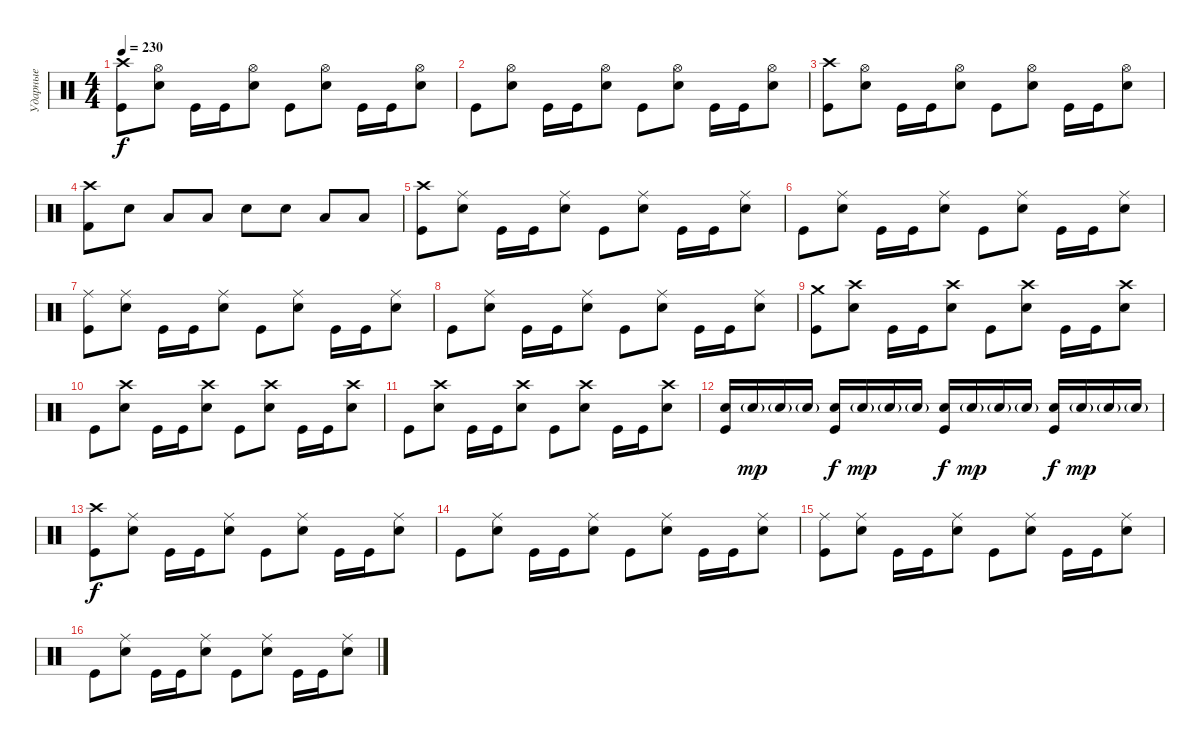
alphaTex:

\track ("Ударные" "Ударные") {instrument percussion}
\staff {score}
\articulation defaults
\ts (4 4)
\tempo 230
\clef neutral
\ks c
("Crash high (hit)" "Kick (hit)").8{dy f} ("Hi-Hat (open)" "Electric Snare (hit)").8 "Kick (hit)".16 "Kick (hit)".16 ("Hi-Hat (open)" "Electric Snare (hit)").8 "Kick (hit)".8 ("Hi-Hat (open)" "Electric Snare (hit)").8 "Kick (hit)".16 "Kick (hit)".16 ("Hi-Hat (open)" "Electric Snare (hit)").8 |
"Kick (hit)".8 ("Hi-Hat (open)" "Electric Snare (hit)").8 "Kick (hit)".16 "Kick (hit)".16 ("Hi-Hat (open)" "Electric Snare (hit)").8 "Kick (hit)".8 ("Hi-Hat (open)" "Electric Snare (hit)").8 "Kick (hit)".16 "Kick (hit)".16 ("Hi-Hat (open)" "Electric Snare (hit)").8 |
("Crash high (hit)" "Kick (hit)").8 ("Hi-Hat (open)" "Electric Snare (hit)").8 "Kick (hit)".16 "Kick (hit)".16 ("Hi-Hat (open)" "Electric Snare (hit)").8 "Kick (hit)".8 ("Hi-Hat (open)" "Electric Snare (hit)").8 "Kick (hit)".16 "Kick (hit)".16 ("Hi-Hat (open)" "Electric Snare (hit)").8 |
("Crash high (hit)" "Kick (hit) 2").8 "Snare (hit) 2".8 "Low Tom (hit)".8 "Low Tom (hit)".8 "Snare (hit) 2".8 "Snare (hit) 2".8 "Low Floor Tom (hit)".8 "Low Floor Tom (hit)".8 |
("Crash high (hit)" "Kick (hit)").8 ("Ride (middle)" "Electric Snare (hit)").8 "Kick (hit)".16 "Kick (hit)".16 ("Ride (middle)" "Electric Snare (hit)").8 "Kick (hit)".8 ("Ride (middle)" "Electric Snare (hit)").8 "Kick (hit)".16 "Kick (hit)".16 ("Ride (middle)" "Electric Snare (hit)").8 |
"Kick (hit)".8 ("Ride (middle)" "Electric Snare (hit)").8 "Kick (hit)".16 "Kick (hit)".16 ("Ride (middle)" "Electric Snare (hit)").8 "Kick (hit)".8 ("Ride (middle)" "Electric Snare (hit)").8 "Kick (hit)".16 "Kick (hit)".16 ("Ride (middle)" "Electric Snare (hit)").8 |
("Ride (middle)" "Kick (hit)").8 ("Ride (middle)" "Electric Snare (hit)").8 "Kick (hit)".16 "Kick (hit)".16 ("Ride (middle)" "Electric Snare (hit)").8 "Kick (hit)".8 ("Ride (middle)" "Electric Snare (hit)").8 "Kick (hit)".16 "Kick (hit)".16 ("Ride (middle)" "Electric Snare (hit)").8 |
"Kick (hit)".8 ("Ride (middle)" "Electric Snare (hit)").8 "Kick (hit)".16 "Kick (hit)".16 ("Ride (middle)" "Electric Snare (hit)").8 "Kick (hit)".8 ("Ride (middle)" "Electric Snare (hit)").8 "Kick (hit)".16 "Kick (hit)".16 ("Ride (middle)" "Electric Snare (hit)").8 |
("Crash medium (hit)" "Kick (hit)").8 ("Crash high (hit)" "Electric Snare (hit)").8 "Kick (hit)".16 "Kick (hit)".16 ("Crash high (hit)" "Electric Snare (hit)").8 "Kick (hit)".8 ("Crash high (hit)" "Electric Snare (hit)").8 "Kick (hit)".16 "Kick (hit)".16 ("Crash high (hit)" "Electric Snare (hit)").8 |
"Kick (hit)".8 ("Crash high (hit)" "Electric Snare (hit)").8 "Kick (hit)".16 "Kick (hit)".16 ("Crash high (hit)" "Electric Snare (hit)").8 "Kick (hit)".8 ("Crash high (hit)" "Electric Snare (hit)").8 "Kick (hit)".16 "Kick (hit)".16 ("Crash high (hit)" "Electric Snare (hit)").8 |
"Kick (hit)".8 ("Crash high (hit)" "Electric Snare (hit)").8 "Kick (hit)".16 "Kick (hit)".16 ("Crash high (hit)" "Electric Snare (hit)").8 "Kick (hit)".8 ("Crash high (hit)" "Electric Snare (hit)").8 "Kick (hit)".16 "Kick (hit)".16 ("Crash high (hit)" "Electric Snare (hit)").8 |
("Snare (hit) 2" "Kick (hit)").16 "Snare (hit) 2"{g}.16{dy mp} "Snare (hit) 2"{g}.16 "Snare (hit) 2"{g}.16 ("Snare (hit) 2" "Kick (hit)").16{dy f} "Snare (hit) 2"{g}.16{dy mp} "Snare (hit) 2"{g}.16 "Snare (hit) 2"{g}.16 ("Snare (hit) 2" "Kick (hit)").16{dy f} "Snare (hit) 2"{g}.16{dy mp} "Snare (hit) 2"{g}.16 "Snare (hit) 2"{g}.16 ("Snare (hit) 2" "Kick (hit)").16{dy f} "Snare (hit) 2"{g}.16{dy mp} "Snare (hit) 2"{g}.16 "Snare (hit) 2"{g}.16 |
("Crash high (hit)" "Kick (hit)").8{dy f} ("Ride (middle)" "Electric Snare (hit)").8 "Kick (hit)".16 "Kick (hit)".16 ("Ride (middle)" "Electric Snare (hit)").8 "Kick (hit)".8 ("Ride (middle)" "Electric Snare (hit)").8 "Kick (hit)".16 "Kick (hit)".16 ("Ride (middle)" "Electric Snare (hit)").8 |
"Kick (hit)".8 ("Ride (middle)" "Electric Snare (hit)").8 "Kick (hit)".16 "Kick (hit)".16 ("Ride (middle)" "Electric Snare (hit)").8 "Kick (hit)".8 ("Ride (middle)" "Electric Snare (hit)").8 "Kick (hit)".16 "Kick (hit)".16 ("Ride (middle)" "Electric Snare (hit)").8 |
("Ride (middle)" "Kick (hit)").8 ("Ride (middle)" "Electric Snare (hit)").8 "Kick (hit)".16 "Kick (hit)".16 ("Ride (middle)" "Electric Snare (hit)").8 "Kick (hit)".8 ("Ride (middle)" "Electric Snare (hit)").8 "Kick (hit)".16 "Kick (hit)".16 ("Ride (middle)" "Electric Snare (hit)").8 |
"Kick (hit)".8 ("Ride (middle)" "Electric Snare (hit)").8 "Kick (hit)".16 "Kick (hit)".16 ("Ride (middle)" "Electric Snare (hit)").8 "Kick (hit)".8 ("Ride (middle)" "Electric Snare (hit)").8 "Kick (hit)".16 "Kick (hit)".16 ("Ride (middle)" "Electric Snare (hit)").8
